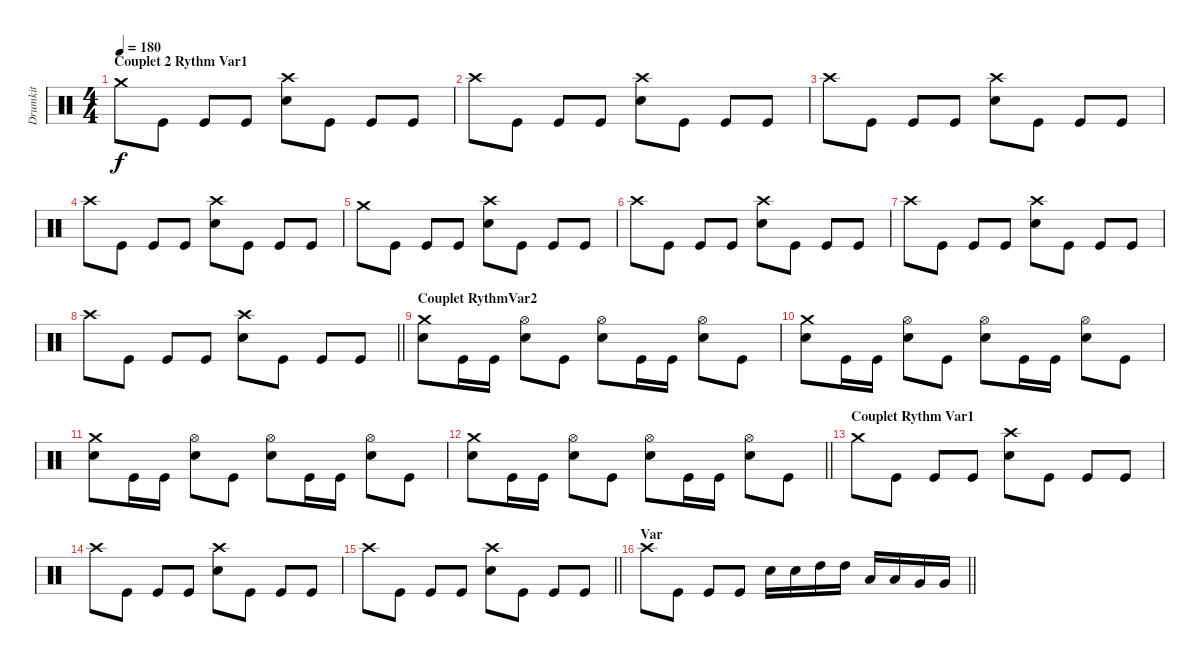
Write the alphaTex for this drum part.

\track ("Drumkit" "Drumkit") {instrument percussion}
\staff {score}
\articulation defaults
\ts (4 4)
\section ("" "Couplet 2 Rythm Var1")
\tempo 180
\clef neutral
\ks c "Crash medium (hit)".8{dy f} "Kick (hit)".8 "Kick (hit)".8 "Kick (hit)".8
("Crash high (hit)" "Snare (hit) 2").8 "Kick (hit)".8 "Kick (hit)".8 "Kick (hit)".8 |
"Crash high (hit)".8 "Kick (hit)".8 "Kick (hit)".8 "Kick (hit)".8 ("Crash high (hit)" "Snare (hit) 2").8 "Kick (hit)".8 "Kick (hit)".8 "Kick (hit)".8 |
"Crash high (hit)".8 "Kick (hit)".8 "Kick (hit)".8 "Kick (hit)".8 ("Crash high (hit)" "Snare (hit) 2").8 "Kick (hit)".8 "Kick (hit)".8 "Kick (hit)".8 |
"Crash high (hit)".8 "Kick (hit)".8 "Kick (hit)".8 "Kick (hit)".8 ("Crash high (hit)" "Snare (hit) 2").8 "Kick (hit)".8 "Kick (hit)".8 "Kick (hit)".8 |
"Crash medium (hit)".8 "Kick (hit)".8 "Kick (hit)".8 "Kick (hit)".8 ("Crash high (hit)" "Snare (hit) 2").8 "Kick (hit)".8 "Kick (hit)".8 "Kick (hit)".8 |
"Crash high (hit)".8 "Kick (hit)".8 "Kick (hit)".8 "Kick (hit)".8 ("Crash high (hit)" "Snare (hit) 2").8 "Kick (hit)".8 "Kick (hit)".8 "Kick (hit)".8 |
"Crash high (hit)".8 "Kick (hit)".8 "Kick (hit)".8 "Kick (hit)".8 ("Crash high (hit)" "Snare (hit) 2").8 "Kick (hit)".8 "Kick (hit)".8 "Kick (hit)".8 |
\barLineRight lightlight "Crash high (hit)".8 "Kick (hit)".8 "Kick (hit)".8 "Kick (hit)".8
("Crash high (hit)" "Snare (hit) 2").8 "Kick (hit)".8 "Kick (hit)".8 "Kick (hit)".8 |
\section ("" "Couplet RythmVar2")
("Crash medium (hit)" "Snare (hit) 2").8 "Kick (hit)".16 "Kick (hit)".16 ("Hi-Hat (open)" "Snare (hit) 2").8 "Kick (hit)".8 ("Hi-Hat (open)" "Snare (hit) 2").8 "Kick (hit)".16 "Kick (hit)".16 ("Hi-Hat (open)" "Snare (hit) 2").8 "Kick (hit)".8 |
("Crash medium (hit)" "Snare (hit) 2").8 "Kick (hit)".16 "Kick (hit)".16 ("Hi-Hat (open)" "Snare (hit) 2").8 "Kick (hit)".8 ("Hi-Hat (open)" "Snare (hit) 2").8 "Kick (hit)".16 "Kick (hit)".16 ("Hi-Hat (open)" "Snare (hit) 2").8 "Kick (hit)".8 |
("Crash medium (hit)" "Snare (hit) 2").8 "Kick (hit)".16 "Kick (hit)".16 ("Hi-Hat (open)" "Snare (hit) 2").8 "Kick (hit)".8 ("Hi-Hat (open)" "Snare (hit) 2").8 "Kick (hit)".16 "Kick (hit)".16 ("Hi-Hat (open)" "Snare (hit) 2").8 "Kick (hit)".8 |
\barLineRight lightlight
("Crash medium (hit)" "Snare (hit) 2").8 "Kick (hit)".16 "Kick (hit)".16 ("Hi-Hat (open)" "Snare (hit) 2").8 "Kick (hit)".8 ("Hi-Hat (open)" "Snare (hit) 2").8 "Kick (hit)".16 "Kick (hit)".16 ("Hi-Hat (open)" "Snare (hit) 2").8 "Kick (hit)".8 |
\section ("" "Couplet Rythm Var1")
"Crash medium (hit)".8 "Kick (hit)".8 "Kick (hit)".8 "Kick (hit)".8 ("Crash high (hit)" "Snare (hit) 2").8 "Kick (hit)".8 "Kick (hit)".8 "Kick (hit)".8 |
"Crash high (hit)".8 "Kick (hit)".8 "Kick (hit)".8 "Kick (hit)".8 ("Crash high (hit)" "Snare (hit) 2").8 "Kick (hit)".8 "Kick (hit)".8 "Kick (hit)".8 |
\barLineRight lightlight "Crash high (hit)".8 "Kick (hit)".8 "Kick (hit)".8 "Kick (hit)".8
("Crash high (hit)" "Snare (hit) 2").8 "Kick (hit)".8 "Kick (hit)".8 "Kick (hit)".8 |
\section ("" "Var")
\barLineRight lightlight "Crash high (hit)".8 "Kick (hit)".8 "Kick (hit)".8 "Kick (hit)".8 "Snare (hit) 2".16 "Snare (hit) 2".16 "High Tom (hit)".16 "High Tom (hit)".16 "Low Tom (hit)".16 "Low Tom (hit)".16 "Very Low Tom (hit)".16 "Very Low Tom (hit)".16
